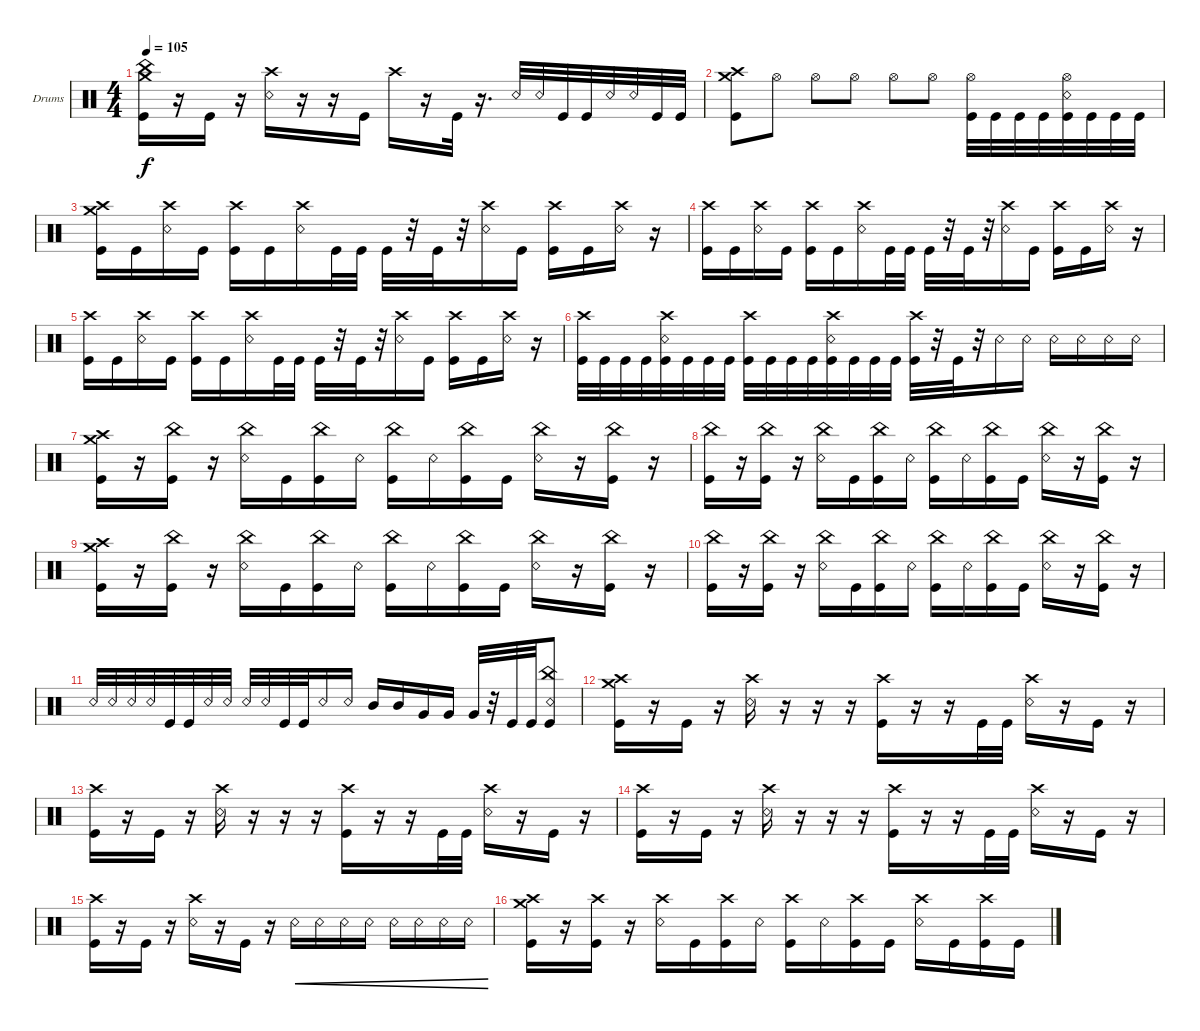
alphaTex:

\bracketExtendMode groupsimilarinstruments
\firstSystemTrackNameOrientation horizontal
\otherSystemsTrackNameOrientation horizontal
\track ("[STEWART]" "Drums") {instrument percussion}
\staff {score}
\articulation defaults
\ts (4 4)
\tempo 105
\clef neutral
\ks c
("Kick (hit)" "Crash medium (hit)" "China (hit)").16{dy f} r.16 "Kick (hit)".16 r.16 ("Snare (rim shot)" "Crash high (hit)").16 r.16 r.16 "Kick (hit)".16 "Crash high (hit)".16 r.16 "Kick (hit)".32 r.16{d} "Snare (rim shot)".32 "Snare (rim shot)".32 "Kick (hit)".32 "Kick (hit)".32 "Snare (rim shot)".32 "Snare (rim shot)".32 "Kick (hit)".32 "Kick (hit)".32 |
("Crash medium (hit)" "Crash high (hit)" "Kick (hit)").8 "Hi-Hat (open)".8 "Hi-Hat (open)".8 "Hi-Hat (open)".8 "Hi-Hat (open)".8 "Hi-Hat (open)".8 ("Kick (hit)" "Hi-Hat (open)").32 "Kick (hit)".32 "Kick (hit)".32 "Kick (hit)".32 ("Kick (hit)" "Hi-Hat (open)" "Snare (rim shot)").32 "Kick (hit)".32 "Kick (hit)".32 "Kick (hit)".32 |
("Kick (hit)" "Crash high (hit)" "Crash medium (hit)").16 "Kick (hit)".16 ("Snare (rim shot)" "Crash high (hit)").16 "Kick (hit)".16 ("Kick (hit)" "Crash high (hit)").16 "Kick (hit)".16 ("Snare (rim shot)" "Crash high (hit)").16 "Kick (hit)".32 "Kick (hit)".32 "Kick (hit)".32 r.32 "Kick (hit)".32 r.32 ("Snare (rim shot)" "Crash high (hit)").16 "Kick (hit)".16 ("Kick (hit)" "Crash high (hit)").16 "Kick (hit)".16 ("Snare (rim shot)" "Crash high (hit)").16 r.16 |
("Kick (hit)" "Crash high (hit)").16 "Kick (hit)".16 ("Snare (rim shot)" "Crash high (hit)").16 "Kick (hit)".16 ("Kick (hit)" "Crash high (hit)").16 "Kick (hit)".16 ("Snare (rim shot)" "Crash high (hit)").16 "Kick (hit)".32 "Kick (hit)".32 "Kick (hit)".32 r.32 "Kick (hit)".32 r.32 ("Snare (rim shot)" "Crash high (hit)").16 "Kick (hit)".16 ("Kick (hit)" "Crash high (hit)").16 "Kick (hit)".16 ("Snare (rim shot)" "Crash high (hit)").16 r.16 |
("Kick (hit)" "Crash high (hit)").16 "Kick (hit)".16 ("Snare (rim shot)" "Crash high (hit)").16 "Kick (hit)".16 ("Kick (hit)" "Crash high (hit)").16 "Kick (hit)".16 ("Snare (rim shot)" "Crash high (hit)").16 "Kick (hit)".32 "Kick (hit)".32 "Kick (hit)".32 r.32 "Kick (hit)".32 r.32 ("Snare (rim shot)" "Crash high (hit)").16 "Kick (hit)".16 ("Kick (hit)" "Crash high (hit)").16 "Kick (hit)".16 ("Snare (rim shot)" "Crash high (hit)").16 r.16 |
("Kick (hit)" "Crash high (hit)").32 "Kick (hit)".32 "Kick (hit)".32 "Kick (hit)".32 ("Kick (hit)" "Snare (rim shot)" "Crash high (hit)").32 "Kick (hit)".32 "Kick (hit)".32 "Kick (hit)".32 ("Kick (hit)" "Crash high (hit)").32 "Kick (hit)".32 "Kick (hit)".32 "Kick (hit)".32 ("Kick (hit)" "Crash high (hit)" "Snare (rim shot)").32 "Kick (hit)".32 "Kick (hit)".32 "Kick (hit)".32 ("Kick (hit)" "Crash high (hit)").32 r.32 "Kick (hit)".32 r.32 "Snare (rim shot)".16 "Snare (rim shot)".16 "Snare (rim shot)".16 "Snare (rim shot)".16 "Snare (rim shot)".16 "Snare (rim shot)".16 |
("Kick (hit)" "Crash high (hit)" "Crash medium (hit)").16 r.16 ("Kick (hit)" "China (hit)").16 r.16 ("Snare (rim shot)" "China (hit)").16 "Kick (hit)".16 ("Kick (hit)" "China (hit)").16 "Snare (rim shot)".16 ("Kick (hit)" "China (hit)").16 "Snare (rim shot)".16 ("Kick (hit)" "China (hit)").16 "Kick (hit)".16 ("Snare (rim shot)" "China (hit)").16 r.16 ("China (hit)" "Kick (hit)").16 r.16 |
("Kick (hit)" "China (hit)").16 r.16 ("Kick (hit)" "China (hit)").16 r.16 ("Snare (rim shot)" "China (hit)").16 "Kick (hit)".16 ("Kick (hit)" "China (hit)").16 "Snare (rim shot)".16 ("Kick (hit)" "China (hit)").16 "Snare (rim shot)".16 ("Kick (hit)" "China (hit)").16 "Kick (hit)".16 ("Snare (rim shot)" "China (hit)").16 r.16 ("China (hit)" "Kick (hit)").16 r.16 |
("Kick (hit)" "Crash high (hit)" "Crash medium (hit)").16 r.16 ("Kick (hit)" "China (hit)").16 r.16 ("Snare (rim shot)" "China (hit)").16 "Kick (hit)".16 ("Kick (hit)" "China (hit)").16 "Snare (rim shot)".16 ("Kick (hit)" "China (hit)").16 "Snare (rim shot)".16 ("Kick (hit)" "China (hit)").16 "Kick (hit)".16 ("Snare (rim shot)" "China (hit)").16 r.16 ("China (hit)" "Kick (hit)").16 r.16 |
("Kick (hit)" "China (hit)").16 r.16 ("Kick (hit)" "China (hit)").16 r.16 ("Snare (rim shot)" "China (hit)").16 "Kick (hit)".16 ("Kick (hit)" "China (hit)").16 "Snare (rim shot)".16 ("Kick (hit)" "China (hit)").16 "Snare (rim shot)".16 ("Kick (hit)" "China (hit)").16 "Kick (hit)".16 ("Snare (rim shot)" "China (hit)").16 r.16 ("China (hit)" "Kick (hit)").16 r.16 |
"Snare (rim shot)".32 "Snare (rim shot)".32 "Snare (rim shot)".32 "Snare (rim shot)".32 "Kick (hit)".32 "Kick (hit)".32 "Snare (rim shot)".32 "Snare (rim shot)".32 "Snare (rim shot)".32 "Snare (rim shot)".32 "Kick (hit)".32 "Kick (hit)".32 "Snare (rim shot)".16 "Snare (rim shot)".16 "Mid Tom (hit)".16 "Mid Tom (hit)".16 "Very Low Tom (hit)".16 "Very Low Tom (hit)".16 "Very Low Tom (hit)".32 r.32 "Kick (hit)".32 "Kick (hit)".32 ("Kick (hit)" "China (hit)" "Snare (rim shot)").8 |
("Crash medium (hit)" "Kick (hit)" "Crash high (hit)").16 r.16 "Kick (hit)".16 r.16 ("Snare (rim shot)" "Crash high (hit)").16 r.16 r.16 r.16 ("Kick (hit)" "Crash high (hit)").16 r.16 r.16 "Kick (hit)".32 "Kick (hit)".32 ("Snare (rim shot)" "Crash high (hit)").16 r.16 "Kick (hit)".16 r.16 |
("Kick (hit)" "Crash high (hit)").16 r.16 "Kick (hit)".16 r.16 ("Snare (rim shot)" "Crash high (hit)").16 r.16 r.16 r.16 ("Kick (hit)" "Crash high (hit)").16 r.16 r.16 "Kick (hit)".32 "Kick (hit)".32 ("Snare (rim shot)" "Crash high (hit)").16 r.16 "Kick (hit)".16 r.16 |
("Kick (hit)" "Crash high (hit)").16 r.16 "Kick (hit)".16 r.16 ("Snare (rim shot)" "Crash high (hit)").16 r.16 r.16 r.16 ("Kick (hit)" "Crash high (hit)").16 r.16 r.16 "Kick (hit)".32 "Kick (hit)".32 ("Snare (rim shot)" "Crash high (hit)").16 r.16 "Kick (hit)".16 r.16 |
("Kick (hit)" "Crash high (hit)").16 r.16 "Kick (hit)".16 r.16 ("Snare (rim shot)" "Crash high (hit)").16 r.16 "Kick (hit)".16 r.16 "Snare (rim shot)".16{cre} "Snare (rim shot)".16{cre} "Snare (rim shot)".16{cre} "Snare (rim shot)".16{cre} "Snare (rim shot)".16{cre} "Snare (rim shot)".16{cre} "Snare (rim shot)".16{cre} "Snare (rim shot)".16{cre} |
("Crash medium (hit)" "Kick (hit)" "Crash high (hit)").16 r.16 ("Crash high (hit)" "Kick (hit)").16 r.16 ("Crash high (hit)" "Snare (rim shot)").16 "Kick (hit)".16 ("Crash high (hit)" "Kick (hit)").16 "Snare (rim shot)".16 ("Crash high (hit)" "Kick (hit)").16 "Snare (rim shot)".16 ("Crash high (hit)" "Kick (hit)").16 "Kick (hit)".16 ("Crash high (hit)" "Snare (rim shot)").16 "Kick (hit)".16 ("Crash high (hit)" "Kick (hit)").16 "Kick (hit)".16
